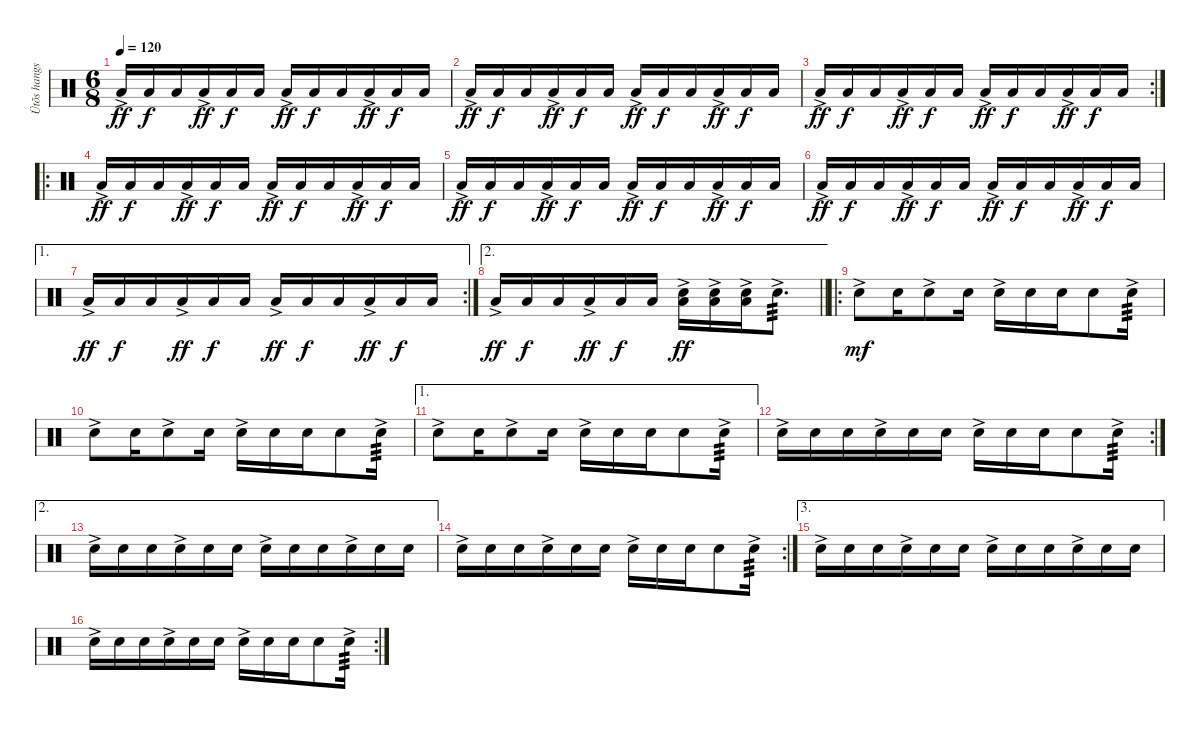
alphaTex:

\track ("Ütõs hangszer" "Ütõs hangs") {instrument percussion}
\staff {score}
\articulation defaults
\ts (6 8)
\tempo 120
\clef neutral
\ks c "Low Floor Tom (hit)"{ac}.16{dy ff} "Low Floor Tom (hit)".16{dy f} "Low Floor Tom (hit)".16 "Low Floor Tom (hit)"{ac}.16{dy ff} "Low Floor Tom (hit)".16{dy f} "Low Floor Tom (hit)".16 "Low Floor Tom (hit)"{ac}.16{dy ff} "Low Floor Tom (hit)".16{dy f} "Low Floor Tom (hit)".16 "Low Floor Tom (hit)"{ac}.16{dy ff} "Low Floor Tom (hit)".16{dy f} "Low Floor Tom (hit)".16
|
"Low Floor Tom (hit)"{ac}.16{dy ff} "Low Floor Tom (hit)".16{dy f} "Low Floor Tom (hit)".16 "Low Floor Tom (hit)"{ac}.16{dy ff} "Low Floor Tom (hit)".16{dy f} "Low Floor Tom (hit)".16 "Low Floor Tom (hit)"{ac}.16{dy ff} "Low Floor Tom (hit)".16{dy f} "Low Floor Tom (hit)".16 "Low Floor Tom (hit)"{ac}.16{dy ff} "Low Floor Tom (hit)".16{dy f} "Low Floor Tom (hit)".16 |
\rc 2 "Low Floor Tom (hit)"{ac}.16{dy ff} "Low Floor Tom (hit)".16{dy f} "Low Floor Tom (hit)".16 "Low Floor Tom (hit)"{ac}.16{dy ff} "Low Floor Tom (hit)".16{dy f} "Low Floor Tom (hit)".16 "Low Floor Tom (hit)"{ac}.16{dy ff} "Low Floor Tom (hit)".16{dy f} "Low Floor Tom (hit)".16 "Low Floor Tom (hit)"{ac}.16{dy ff} "Low Floor Tom (hit)".16{dy f} "Low Floor Tom (hit)".16
|
\ro "Low Floor Tom (hit)"{ac}.16{dy ff} "Low Floor Tom (hit)".16{dy f} "Low Floor Tom (hit)".16 "Low Floor Tom (hit)"{ac}.16{dy ff} "Low Floor Tom (hit)".16{dy f} "Low Floor Tom (hit)".16 "Low Floor Tom (hit)"{ac}.16{dy ff} "Low Floor Tom (hit)".16{dy f} "Low Floor Tom (hit)".16 "Low Floor Tom (hit)"{ac}.16{dy ff} "Low Floor Tom (hit)".16{dy f} "Low Floor Tom (hit)".16
|
"Low Floor Tom (hit)"{ac}.16{dy ff} "Low Floor Tom (hit)".16{dy f} "Low Floor Tom (hit)".16 "Low Floor Tom (hit)"{ac}.16{dy ff} "Low Floor Tom (hit)".16{dy f} "Low Floor Tom (hit)".16 "Low Floor Tom (hit)"{ac}.16{dy ff} "Low Floor Tom (hit)".16{dy f} "Low Floor Tom (hit)".16 "Low Floor Tom (hit)"{ac}.16{dy ff} "Low Floor Tom (hit)".16{dy f} "Low Floor Tom (hit)".16 |
"Low Floor Tom (hit)"{ac}.16{dy ff} "Low Floor Tom (hit)".16{dy f} "Low Floor Tom (hit)".16 "Low Floor Tom (hit)"{ac}.16{dy ff} "Low Floor Tom (hit)".16{dy f} "Low Floor Tom (hit)".16 "Low Floor Tom (hit)"{ac}.16{dy ff} "Low Floor Tom (hit)".16{dy f} "Low Floor Tom (hit)".16 "Low Floor Tom (hit)"{ac}.16{dy ff} "Low Floor Tom (hit)".16{dy f} "Low Floor Tom (hit)".16 |
\ae 1
\rc 2 "Low Floor Tom (hit)"{ac}.16{dy ff} "Low Floor Tom (hit)".16{dy f} "Low Floor Tom (hit)".16 "Low Floor Tom (hit)"{ac}.16{dy ff} "Low Floor Tom (hit)".16{dy f} "Low Floor Tom (hit)".16 "Low Floor Tom (hit)"{ac}.16{dy ff} "Low Floor Tom (hit)".16{dy f} "Low Floor Tom (hit)".16 "Low Floor Tom (hit)"{ac}.16{dy ff} "Low Floor Tom (hit)".16{dy f} "Low Floor Tom (hit)".16
|
\ae 2
\barLineRight lightlight "Low Floor Tom (hit)"{ac}.16{dy ff} "Low Floor Tom (hit)".16{dy f} "Low Floor Tom (hit)".16 "Low Floor Tom (hit)"{ac}.16{dy ff} "Low Floor Tom (hit)".16{dy f} "Low Floor Tom (hit)".16
("Snare (hit) 2" "Low Floor Tom (hit)"{ac}).16{dy ff} ("Snare (hit) 2"{ac} "Low Floor Tom (hit)"{ac}).16 ("Snare (hit) 2"{ac} "Low Floor Tom (hit)"{ac}).16 "Snare (hit) 2"{ac}.8{d tp 3} |
\ro "Snare (hit) 2"{ac}.8{dy mf} "Snare (hit) 2".16 "Snare (hit) 2"{ac}.8 "Snare (hit) 2".16 "Snare (hit) 2"{ac}.16 "Snare (hit) 2".16 "Snare (hit) 2".16 "Snare (hit) 2".8 "Snare (hit) 2"{ac}.16{tp 3}
|
"Snare (hit) 2"{ac}.8 "Snare (hit) 2".16 "Snare (hit) 2"{ac}.8 "Snare (hit) 2".16 "Snare (hit) 2"{ac}.16 "Snare (hit) 2".16 "Snare (hit) 2".16 "Snare (hit) 2".8 "Snare (hit) 2"{ac}.16{tp 3} |
\ae 1 "Snare (hit) 2"{ac}.8 "Snare (hit) 2".16 "Snare (hit) 2"{ac}.8 "Snare (hit) 2".16 "Snare (hit) 2"{ac}.16 "Snare (hit) 2".16 "Snare (hit) 2".16 "Snare (hit) 2".8 "Snare (hit) 2"{ac}.16{tp 3}
|
\rc 2 "Snare (hit) 2"{ac}.16 "Snare (hit) 2".16 "Snare (hit) 2".16 "Snare (hit) 2"{ac}.16 "Snare (hit) 2".16 "Snare (hit) 2".16 "Snare (hit) 2"{ac}.16 "Snare (hit) 2".16 "Snare (hit) 2".16 "Snare (hit) 2".8 "Snare (hit) 2"{ac}.16{tp 3}
|
\ae 2 "Snare (hit) 2"{ac}.16 "Snare (hit) 2".16 "Snare (hit) 2".16 "Snare (hit) 2"{ac}.16 "Snare (hit) 2".16 "Snare (hit) 2".16 "Snare (hit) 2"{ac}.16 "Snare (hit) 2".16 "Snare (hit) 2".16 "Snare (hit) 2"{ac}.16 "Snare (hit) 2".16 "Snare (hit) 2".16
|
\rc 2 "Snare (hit) 2"{ac}.16 "Snare (hit) 2".16 "Snare (hit) 2".16 "Snare (hit) 2"{ac}.16 "Snare (hit) 2".16 "Snare (hit) 2".16 "Snare (hit) 2"{ac}.16 "Snare (hit) 2".16 "Snare (hit) 2".16 "Snare (hit) 2".8 "Snare (hit) 2"{ac}.16{tp 3}
|
\ae 3 "Snare (hit) 2"{ac}.16 "Snare (hit) 2".16 "Snare (hit) 2".16 "Snare (hit) 2"{ac}.16 "Snare (hit) 2".16 "Snare (hit) 2".16 "Snare (hit) 2"{ac}.16 "Snare (hit) 2".16 "Snare (hit) 2".16 "Snare (hit) 2"{ac}.16 "Snare (hit) 2".16 "Snare (hit) 2".16
|
\rc 2 "Snare (hit) 2"{ac}.16 "Snare (hit) 2".16 "Snare (hit) 2".16 "Snare (hit) 2"{ac}.16 "Snare (hit) 2".16 "Snare (hit) 2".16 "Snare (hit) 2"{ac}.16 "Snare (hit) 2".16 "Snare (hit) 2".16 "Snare (hit) 2".8 "Snare (hit) 2"{ac}.16{tp 3}
